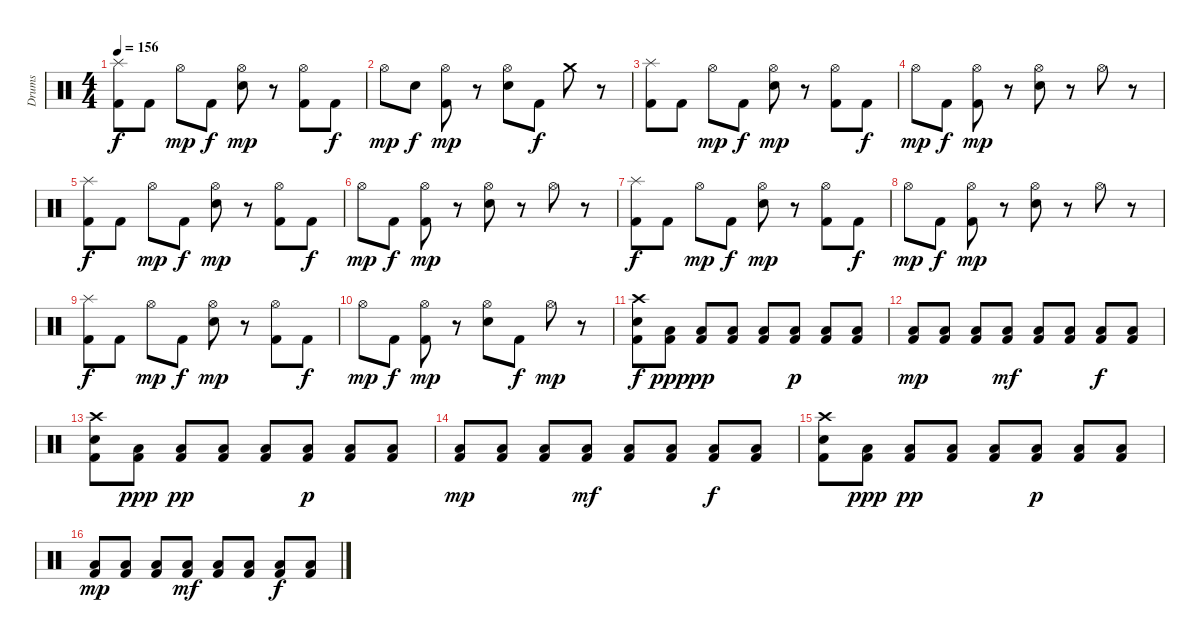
\track ("Drums" "Drums") {instrument percussion}
\staff {score}
\articulation defaults
\ts (4 4)
\tempo 156
\clef neutral
\ks c
("Kick (hit) 2" "Splash (hit)").8{dy f} "Kick (hit) 2".8 "Hi-Hat (open)".8{dy mp} "Kick (hit) 2".8{dy f} ("Snare (hit) 2" "Hi-Hat (open)").8{dy mp} r.8 ("Kick (hit) 2" "Hi-Hat (open)").8 "Kick (hit) 2".8{dy f} |
"Hi-Hat (open)".8{dy mp} "Snare (hit) 2".8{dy f} ("Kick (hit) 2" "Hi-Hat (open)").8{dy mp} r.8 ("Snare (hit) 2" "Hi-Hat (open)").8 "Kick (hit) 2".8{dy f} "Crash medium (hit)".8 r.8 |
("Kick (hit) 2" "Splash (hit)").8 "Kick (hit) 2".8 "Hi-Hat (open)".8{dy mp} "Kick (hit) 2".8{dy f} ("Snare (hit) 2" "Hi-Hat (open)").8{dy mp} r.8 ("Kick (hit) 2" "Hi-Hat (open)").8 "Kick (hit) 2".8{dy f} |
"Hi-Hat (open)".8{dy mp} "Kick (hit) 2".8{dy f} ("Kick (hit) 2" "Hi-Hat (open)").8{dy mp} r.8 ("Snare (hit) 2" "Hi-Hat (open)").8 r.8 "Hi-Hat (open)".8 r.8 |
("Kick (hit) 2" "Splash (hit)").8{dy f} "Kick (hit) 2".8 "Hi-Hat (open)".8{dy mp} "Kick (hit) 2".8{dy f} ("Snare (hit) 2" "Hi-Hat (open)").8{dy mp} r.8 ("Kick (hit) 2" "Hi-Hat (open)").8 "Kick (hit) 2".8{dy f} |
"Hi-Hat (open)".8{dy mp} "Kick (hit) 2".8{dy f} ("Kick (hit) 2" "Hi-Hat (open)").8{dy mp} r.8 ("Snare (hit) 2" "Hi-Hat (open)").8 r.8 "Hi-Hat (open)".8 r.8 |
("Kick (hit) 2" "Splash (hit)").8{dy f} "Kick (hit) 2".8 "Hi-Hat (open)".8{dy mp} "Kick (hit) 2".8{dy f} ("Snare (hit) 2" "Hi-Hat (open)").8{dy mp} r.8 ("Kick (hit) 2" "Hi-Hat (open)").8 "Kick (hit) 2".8{dy f} |
"Hi-Hat (open)".8{dy mp} "Kick (hit) 2".8{dy f} ("Kick (hit) 2" "Hi-Hat (open)").8{dy mp} r.8 ("Snare (hit) 2" "Hi-Hat (open)").8 r.8 "Hi-Hat (open)".8 r.8 |
("Kick (hit) 2" "Splash (hit)").8{dy f} "Kick (hit) 2".8 "Hi-Hat (open)".8{dy mp} "Kick (hit) 2".8{dy f} ("Snare (hit) 2" "Hi-Hat (open)").8{dy mp} r.8 ("Kick (hit) 2" "Hi-Hat (open)").8 "Kick (hit) 2".8{dy f} |
"Hi-Hat (open)".8{dy mp} "Kick (hit) 2".8{dy f} ("Kick (hit) 2" "Hi-Hat (open)").8{dy mp} r.8 ("Snare (hit) 2" "Hi-Hat (open)").8 "Kick (hit) 2".8{dy f} "Hi-Hat (open)".8{dy mp} r.8 |
("Kick (hit) 2" "Snare (hit) 2" "Crash high (hit)").8{dy f} ("Kick (hit) 2" "Low Floor Tom (hit)").8{dy ppp} ("Kick (hit) 2" "Low Floor Tom (hit)").8{dy pp} ("Kick (hit) 2" "Low Floor Tom (hit)").8 ("Kick (hit) 2" "Low Floor Tom (hit)").8 ("Kick (hit) 2" "Low Floor Tom (hit)").8{dy p} ("Kick (hit) 2" "Low Floor Tom (hit)").8 ("Kick (hit) 2" "Low Floor Tom (hit)").8 |
("Kick (hit) 2" "Low Floor Tom (hit)").8{dy mp} ("Kick (hit) 2" "Low Floor Tom (hit)").8 ("Kick (hit) 2" "Low Floor Tom (hit)").8 ("Kick (hit) 2" "Low Floor Tom (hit)").8{dy mf} ("Kick (hit) 2" "Low Floor Tom (hit)").8 ("Kick (hit) 2" "Low Floor Tom (hit)").8 ("Kick (hit) 2" "Low Floor Tom (hit)").8{dy f} ("Kick (hit) 2" "Low Floor Tom (hit)").8 |
("Kick (hit) 2" "Snare (hit) 2" "Crash high (hit)").8 ("Kick (hit) 2" "Low Floor Tom (hit)").8{dy ppp} ("Kick (hit) 2" "Low Floor Tom (hit)").8{dy pp} ("Kick (hit) 2" "Low Floor Tom (hit)").8 ("Kick (hit) 2" "Low Floor Tom (hit)").8 ("Kick (hit) 2" "Low Floor Tom (hit)").8{dy p} ("Kick (hit) 2" "Low Floor Tom (hit)").8 ("Kick (hit) 2" "Low Floor Tom (hit)").8 |
("Kick (hit) 2" "Low Floor Tom (hit)").8{dy mp} ("Kick (hit) 2" "Low Floor Tom (hit)").8 ("Kick (hit) 2" "Low Floor Tom (hit)").8 ("Kick (hit) 2" "Low Floor Tom (hit)").8{dy mf} ("Kick (hit) 2" "Low Floor Tom (hit)").8 ("Kick (hit) 2" "Low Floor Tom (hit)").8 ("Kick (hit) 2" "Low Floor Tom (hit)").8{dy f} ("Kick (hit) 2" "Low Floor Tom (hit)").8 |
("Kick (hit) 2" "Snare (hit) 2" "Crash high (hit)").8 ("Kick (hit) 2" "Low Floor Tom (hit)").8{dy ppp} ("Kick (hit) 2" "Low Floor Tom (hit)").8{dy pp} ("Kick (hit) 2" "Low Floor Tom (hit)").8 ("Kick (hit) 2" "Low Floor Tom (hit)").8 ("Kick (hit) 2" "Low Floor Tom (hit)").8{dy p} ("Kick (hit) 2" "Low Floor Tom (hit)").8 ("Kick (hit) 2" "Low Floor Tom (hit)").8 |
("Kick (hit) 2" "Low Floor Tom (hit)").8{dy mp} ("Kick (hit) 2" "Low Floor Tom (hit)").8 ("Kick (hit) 2" "Low Floor Tom (hit)").8 ("Kick (hit) 2" "Low Floor Tom (hit)").8{dy mf} ("Kick (hit) 2" "Low Floor Tom (hit)").8 ("Kick (hit) 2" "Low Floor Tom (hit)").8 ("Kick (hit) 2" "Low Floor Tom (hit)").8{dy f} ("Kick (hit) 2" "Low Floor Tom (hit)").8
